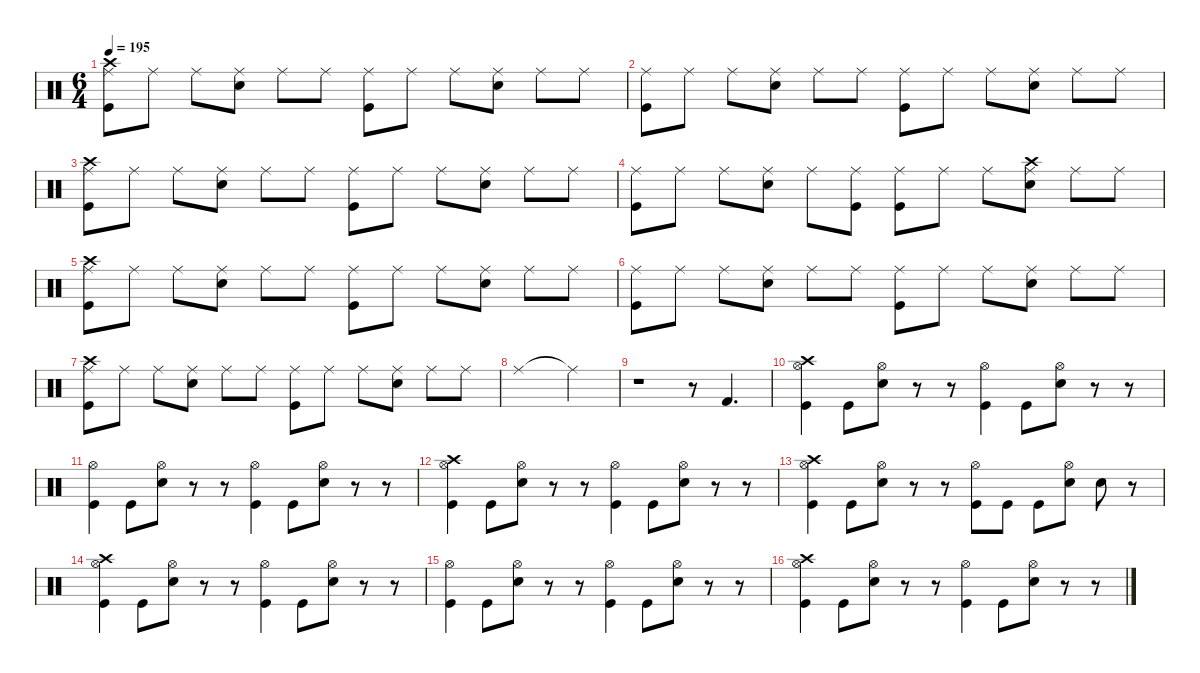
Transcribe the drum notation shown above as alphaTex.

\defaultSystemsLayout 4
\hideDynamics
\bracketExtendMode nobrackets
\singleTrackTrackNamePolicy hidden
\multiTrackTrackNamePolicy hidden
\firstSystemTrackNameMode fullname
\firstSystemTrackNameOrientation horizontal
\otherSystemsTrackNameOrientation horizontal
\track ("Percussion" "drm.") {defaultSystemsLayout 2 instrument percussion}
\staff {score}
\articulation defaults
\ts (6 4)
\tempo 195
\clef neutral
\ks c
("Ride (middle)" "Crash high (hit)" "Kick (hit)").8{dy f beam Down} "Ride (middle)".8{beam Down} "Ride (middle)".8{beam Down} ("Ride (middle)" "Snare (hit) 2").8{beam Down} "Ride (middle)".8{beam Down} "Ride (middle)".8{beam Down} ("Ride (middle)" "Kick (hit)").8{beam Down} "Ride (middle)".8{beam Down} "Ride (middle)".8{beam Down} ("Ride (middle)" "Snare (hit) 2").8{beam Down} "Ride (middle)".8{beam Down} "Ride (middle)".8{beam Down} |
("Ride (middle)" "Kick (hit)").8{beam Down} "Ride (middle)".8{beam Down} "Ride (middle)".8{beam Down} ("Ride (middle)" "Snare (hit) 2").8{beam Down} "Ride (middle)".8{beam Down} "Ride (middle)".8{beam Down} ("Ride (middle)" "Kick (hit)").8{beam Down} "Ride (middle)".8{beam Down} "Ride (middle)".8{beam Down} ("Ride (middle)" "Snare (hit) 2").8{beam Down} "Ride (middle)".8{beam Down} "Ride (middle)".8{beam Down} |
("Ride (middle)" "Crash high (hit)" "Kick (hit)").8{beam Down} "Ride (middle)".8{beam Down} "Ride (middle)".8{beam Down} ("Ride (middle)" "Snare (hit) 2").8{beam Down} "Ride (middle)".8{beam Down} "Ride (middle)".8{beam Down} ("Ride (middle)" "Kick (hit)").8{beam Down} "Ride (middle)".8{beam Down} "Ride (middle)".8{beam Down} ("Ride (middle)" "Snare (hit) 2").8{beam Down} "Ride (middle)".8{beam Down} "Ride (middle)".8{beam Down} |
("Ride (middle)" "Kick (hit)").8{beam Down} "Ride (middle)".8{beam Down} "Ride (middle)".8{beam Down} ("Ride (middle)" "Snare (hit) 2").8{beam Down} "Ride (middle)".8{beam Down} ("Ride (middle)" "Kick (hit)").8{beam Down} ("Ride (middle)" "Kick (hit)").8{beam Down} "Ride (middle)".8{beam Down} "Ride (middle)".8{beam Down} ("Ride (middle)" "Crash high (hit)" "Snare (hit) 2").8{beam Down} "Ride (middle)".8{beam Down} "Ride (middle)".8{beam Down} |
("Ride (middle)" "Crash high (hit)" "Kick (hit)").8{beam Down} "Ride (middle)".8{beam Down} "Ride (middle)".8{beam Down} ("Ride (middle)" "Snare (hit) 2").8{beam Down} "Ride (middle)".8{beam Down} "Ride (middle)".8{beam Down} ("Ride (middle)" "Kick (hit)").8{beam Down} "Ride (middle)".8{beam Down} "Ride (middle)".8{beam Down} ("Ride (middle)" "Snare (hit) 2").8{beam Down} "Ride (middle)".8{beam Down} "Ride (middle)".8{beam Down} |
("Ride (middle)" "Kick (hit)").8{beam Down} "Ride (middle)".8{beam Down} "Ride (middle)".8{beam Down} ("Ride (middle)" "Snare (hit) 2").8{beam Down} "Ride (middle)".8{beam Down} "Ride (middle)".8{beam Down} ("Ride (middle)" "Kick (hit)").8{beam Down} "Ride (middle)".8{beam Down} "Ride (middle)".8{beam Down} ("Ride (middle)" "Snare (hit) 2").8{beam Down} "Ride (middle)".8{beam Down} "Ride (middle)".8{beam Down} |
("Ride (middle)" "Crash high (hit)" "Kick (hit)").8{beam Down} "Ride (middle)".8{beam Down} "Ride (middle)".8{beam Down} ("Ride (middle)" "Snare (hit) 2").8{beam Down} "Ride (middle)".8{beam Down} "Ride (middle)".8{beam Down} ("Ride (middle)" "Kick (hit)").8{beam Down} "Ride (middle)".8{beam Down} "Ride (middle)".8{beam Down} ("Ride (middle)" "Snare (hit) 2").8{beam Down} "Ride (middle)".8{beam Down} "Ride (middle)".8{beam Down} |
"Ride (middle)".1{beam Down} "Ride (middle)"{t}.2{beam Down} |
r.1{beam Down} r.8{beam Down} "Kick (hit) 2".4{d beam Up} |
("Crash high (hit)" "Hi-Hat (open)" "Kick (hit)").4{beam Down} "Kick (hit)".8{beam Down} ("Hi-Hat (open)" "Snare (hit) 2").8{beam Down} r.8{beam Down} r.8{beam Down} ("Hi-Hat (open)" "Kick (hit)").4{beam Down} "Kick (hit)".8{beam Down} ("Hi-Hat (open)" "Snare (hit) 2").8{beam Down} r.8{beam Down} r.8{beam Down} |
("Hi-Hat (open)" "Kick (hit)").4{beam Down} "Kick (hit)".8{beam Down} ("Hi-Hat (open)" "Snare (hit) 2").8{beam Down} r.8{beam Down} r.8{beam Down} ("Hi-Hat (open)" "Kick (hit)").4{beam Down} "Kick (hit)".8{beam Down} ("Hi-Hat (open)" "Snare (hit) 2").8{beam Down} r.8{beam Down} r.8{beam Down} |
("Crash high (hit)" "Hi-Hat (open)" "Kick (hit)").4{beam Down} "Kick (hit)".8{beam Down} ("Hi-Hat (open)" "Snare (hit) 2").8{beam Down} r.8{beam Down} r.8{beam Down} ("Hi-Hat (open)" "Kick (hit)").4{beam Down} "Kick (hit)".8{beam Down} ("Hi-Hat (open)" "Snare (hit) 2").8{beam Down} r.8{beam Down} r.8{beam Down} |
("Crash high (hit)" "Hi-Hat (open)" "Kick (hit)").4{beam Down} "Kick (hit)".8{beam Down} ("Hi-Hat (open)" "Snare (hit) 2").8{beam Down} r.8{beam Down} r.8{beam Down} ("Hi-Hat (open)" "Kick (hit)").8{beam Down} "Kick (hit)".8{beam Down} "Kick (hit)".8{beam Down} ("Hi-Hat (open)" "Snare (hit) 2").8{beam Down} "Snare (hit) 2".8{beam Down} r.8{beam Down} |
("Crash high (hit)" "Hi-Hat (open)" "Kick (hit)").4{beam Down} "Kick (hit)".8{beam Down} ("Hi-Hat (open)" "Snare (hit) 2").8{beam Down} r.8{beam Down} r.8{beam Down} ("Hi-Hat (open)" "Kick (hit)").4{beam Down} "Kick (hit)".8{beam Down} ("Hi-Hat (open)" "Snare (hit) 2").8{beam Down} r.8{beam Down} r.8{beam Down} |
("Hi-Hat (open)" "Kick (hit)").4{beam Down} "Kick (hit)".8{beam Down} ("Hi-Hat (open)" "Snare (hit) 2").8{beam Down} r.8{beam Down} r.8{beam Down} ("Hi-Hat (open)" "Kick (hit)").4{beam Down} "Kick (hit)".8{beam Down} ("Hi-Hat (open)" "Snare (hit) 2").8{beam Down} r.8{beam Down} r.8{beam Down} |
("Crash high (hit)" "Hi-Hat (open)" "Kick (hit)").4{beam Down} "Kick (hit)".8{beam Down} ("Hi-Hat (open)" "Snare (hit) 2").8{beam Down} r.8{beam Down} r.8{beam Down} ("Hi-Hat (open)" "Kick (hit)").4{beam Down} "Kick (hit)".8{beam Down} ("Hi-Hat (open)" "Snare (hit) 2").8{beam Down} r.8{beam Down} r.8{beam Down}
